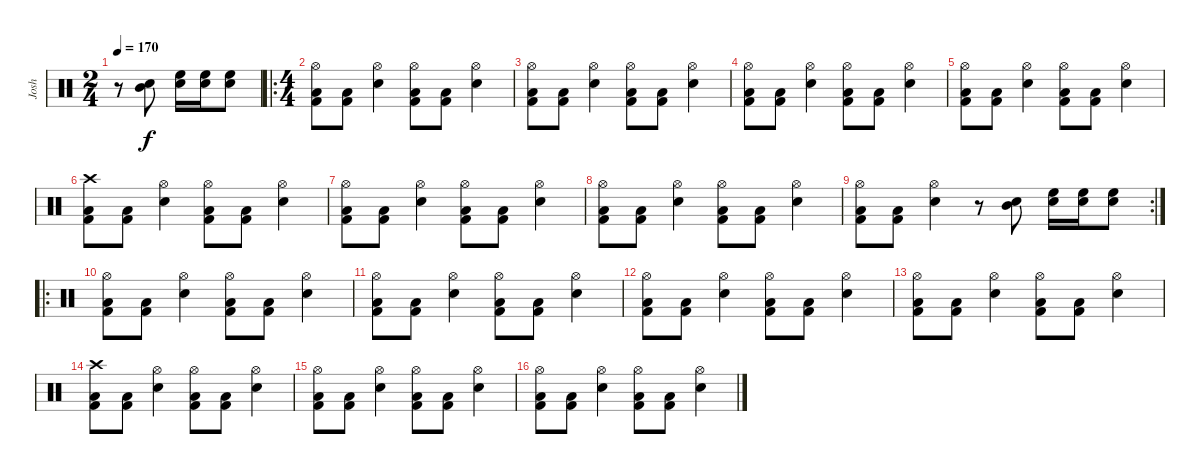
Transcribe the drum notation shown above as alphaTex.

\track ("Josh" "Josh") {instrument percussion}
\staff {score}
\articulation defaults
\ts (2 4)
\tempo 170
\clef neutral
\ks c
r.8{dy f} ("Mid Tom (hit)" "Snare (hit) 2").8 ("High Floor Tom (hit)" "Snare (hit) 2").16 ("High Floor Tom (hit)" "Snare (hit) 2").16 ("High Floor Tom (hit)" "Snare (hit) 2").8 |
\ro
\ts (4 4)
("Hi-Hat (open)" "Low Tom (hit)" "Kick (hit) 2").8 ("Low Tom (hit)" "Kick (hit) 2").8 ("Hi-Hat (open)" "Snare (hit) 2").4 ("Hi-Hat (open)" "Low Tom (hit)" "Kick (hit) 2").8 ("Low Tom (hit)" "Kick (hit) 2").8 ("Hi-Hat (open)" "Snare (hit) 2").4 |
("Hi-Hat (open)" "Low Tom (hit)" "Kick (hit) 2").8 ("Low Tom (hit)" "Kick (hit) 2").8 ("Hi-Hat (open)" "Snare (hit) 2").4 ("Hi-Hat (open)" "Low Tom (hit)" "Kick (hit) 2").8 ("Low Tom (hit)" "Kick (hit) 2").8 ("Hi-Hat (open)" "Snare (hit) 2").4 |
("Hi-Hat (open)" "Low Tom (hit)" "Kick (hit) 2").8 ("Low Tom (hit)" "Kick (hit) 2").8 ("Hi-Hat (open)" "Snare (hit) 2").4 ("Hi-Hat (open)" "Low Tom (hit)" "Kick (hit) 2").8 ("Low Tom (hit)" "Kick (hit) 2").8 ("Hi-Hat (open)" "Snare (hit) 2").4 |
("Hi-Hat (open)" "Low Tom (hit)" "Kick (hit) 2").8 ("Low Tom (hit)" "Kick (hit) 2").8 ("Hi-Hat (open)" "Snare (hit) 2").4 ("Hi-Hat (open)" "Low Tom (hit)" "Kick (hit) 2").8 ("Low Tom (hit)" "Kick (hit) 2").8 ("Hi-Hat (open)" "Snare (hit) 2").4 |
("Crash high (hit)" "Low Tom (hit)" "Kick (hit) 2").8 ("Low Tom (hit)" "Kick (hit) 2").8 ("Hi-Hat (open)" "Snare (hit) 2").4 ("Hi-Hat (open)" "Low Tom (hit)" "Kick (hit) 2").8 ("Low Tom (hit)" "Kick (hit) 2").8 ("Hi-Hat (open)" "Snare (hit) 2").4 |
("Hi-Hat (open)" "Low Tom (hit)" "Kick (hit) 2").8 ("Low Tom (hit)" "Kick (hit) 2").8 ("Hi-Hat (open)" "Snare (hit) 2").4 ("Hi-Hat (open)" "Low Tom (hit)" "Kick (hit) 2").8 ("Low Tom (hit)" "Kick (hit) 2").8 ("Hi-Hat (open)" "Snare (hit) 2").4 |
("Hi-Hat (open)" "Low Tom (hit)" "Kick (hit) 2").8 ("Low Tom (hit)" "Kick (hit) 2").8 ("Hi-Hat (open)" "Snare (hit) 2").4 ("Hi-Hat (open)" "Low Tom (hit)" "Kick (hit) 2").8 ("Low Tom (hit)" "Kick (hit) 2").8 ("Hi-Hat (open)" "Snare (hit) 2").4 |
\rc 2
("Hi-Hat (open)" "Low Tom (hit)" "Kick (hit) 2").8 ("Low Tom (hit)" "Kick (hit) 2").8 ("Hi-Hat (open)" "Snare (hit) 2").4 r.8 ("Mid Tom (hit)" "Snare (hit) 2").8 ("High Floor Tom (hit)" "Snare (hit) 2").16 ("High Floor Tom (hit)" "Snare (hit) 2").16 ("High Floor Tom (hit)" "Snare (hit) 2").8 |
\ro
("Hi-Hat (open)" "Low Tom (hit)" "Kick (hit) 2").8 ("Low Tom (hit)" "Kick (hit) 2").8 ("Hi-Hat (open)" "Snare (hit) 2").4 ("Hi-Hat (open)" "Low Tom (hit)" "Kick (hit) 2").8 ("Low Tom (hit)" "Kick (hit) 2").8 ("Hi-Hat (open)" "Snare (hit) 2").4 |
("Hi-Hat (open)" "Low Tom (hit)" "Kick (hit) 2").8 ("Low Tom (hit)" "Kick (hit) 2").8 ("Hi-Hat (open)" "Snare (hit) 2").4 ("Hi-Hat (open)" "Low Tom (hit)" "Kick (hit) 2").8 ("Low Tom (hit)" "Kick (hit) 2").8 ("Hi-Hat (open)" "Snare (hit) 2").4 |
("Hi-Hat (open)" "Low Tom (hit)" "Kick (hit) 2").8 ("Low Tom (hit)" "Kick (hit) 2").8 ("Hi-Hat (open)" "Snare (hit) 2").4 ("Hi-Hat (open)" "Low Tom (hit)" "Kick (hit) 2").8 ("Low Tom (hit)" "Kick (hit) 2").8 ("Hi-Hat (open)" "Snare (hit) 2").4 |
("Hi-Hat (open)" "Low Tom (hit)" "Kick (hit) 2").8 ("Low Tom (hit)" "Kick (hit) 2").8 ("Hi-Hat (open)" "Snare (hit) 2").4 ("Hi-Hat (open)" "Low Tom (hit)" "Kick (hit) 2").8 ("Low Tom (hit)" "Kick (hit) 2").8 ("Hi-Hat (open)" "Snare (hit) 2").4 |
("Crash high (hit)" "Low Tom (hit)" "Kick (hit) 2").8 ("Low Tom (hit)" "Kick (hit) 2").8 ("Hi-Hat (open)" "Snare (hit) 2").4 ("Hi-Hat (open)" "Low Tom (hit)" "Kick (hit) 2").8 ("Low Tom (hit)" "Kick (hit) 2").8 ("Hi-Hat (open)" "Snare (hit) 2").4 |
("Hi-Hat (open)" "Low Tom (hit)" "Kick (hit) 2").8 ("Low Tom (hit)" "Kick (hit) 2").8 ("Hi-Hat (open)" "Snare (hit) 2").4 ("Hi-Hat (open)" "Low Tom (hit)" "Kick (hit) 2").8 ("Low Tom (hit)" "Kick (hit) 2").8 ("Hi-Hat (open)" "Snare (hit) 2").4 |
("Hi-Hat (open)" "Low Tom (hit)" "Kick (hit) 2").8 ("Low Tom (hit)" "Kick (hit) 2").8 ("Hi-Hat (open)" "Snare (hit) 2").4 ("Hi-Hat (open)" "Low Tom (hit)" "Kick (hit) 2").8 ("Low Tom (hit)" "Kick (hit) 2").8 ("Hi-Hat (open)" "Snare (hit) 2").4
